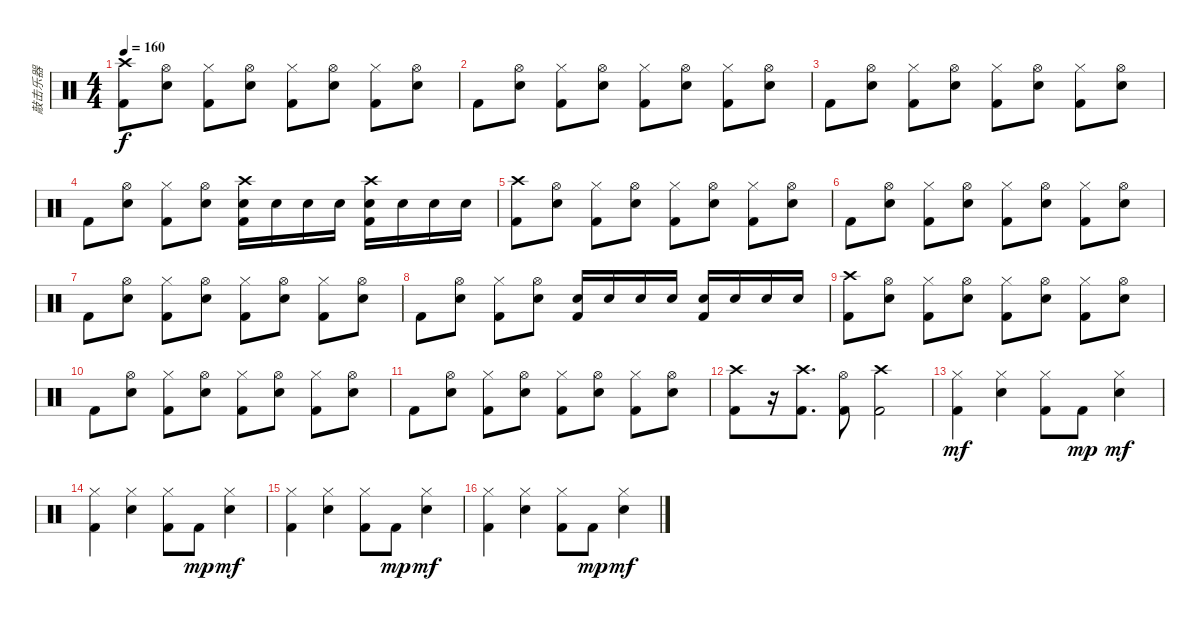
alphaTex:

\track ("敲击乐器" "敲击乐器") {instrument percussion}
\staff {score}
\articulation defaults
\ts (4 4)
\tempo 160
\clef neutral
\ks c
("Crash high (hit)" "Kick (hit) 2").8{dy f} ("Hi-Hat (open)" "Electric Snare (hit)").8 ("Hi-Hat (closed)" "Kick (hit) 2").8 ("Hi-Hat (open)" "Electric Snare (hit)").8 ("Hi-Hat (closed)" "Kick (hit) 2").8 ("Hi-Hat (open)" "Electric Snare (hit)").8 ("Hi-Hat (closed)" "Kick (hit) 2").8 ("Hi-Hat (open)" "Electric Snare (hit)").8 |
"Kick (hit) 2".8 ("Hi-Hat (open)" "Electric Snare (hit)").8 ("Hi-Hat (closed)" "Kick (hit) 2").8 ("Hi-Hat (open)" "Electric Snare (hit)").8 ("Hi-Hat (closed)" "Kick (hit) 2").8 ("Hi-Hat (open)" "Electric Snare (hit)").8 ("Hi-Hat (closed)" "Kick (hit) 2").8 ("Hi-Hat (open)" "Electric Snare (hit)").8 |
"Kick (hit) 2".8 ("Hi-Hat (open)" "Electric Snare (hit)").8 ("Hi-Hat (closed)" "Kick (hit) 2").8 ("Hi-Hat (open)" "Electric Snare (hit)").8 ("Hi-Hat (closed)" "Kick (hit) 2").8 ("Hi-Hat (open)" "Electric Snare (hit)").8 ("Hi-Hat (closed)" "Kick (hit) 2").8 ("Hi-Hat (open)" "Electric Snare (hit)").8 |
"Kick (hit) 2".8 ("Hi-Hat (open)" "Electric Snare (hit)").8 ("Hi-Hat (closed)" "Kick (hit) 2").8 ("Hi-Hat (open)" "Electric Snare (hit)").8 ("Crash high (hit)" "Electric Snare (hit)" "Kick (hit) 2").16 "Electric Snare (hit)".16 "Electric Snare (hit)".16 "Electric Snare (hit)".16 ("Crash high (hit)" "Electric Snare (hit)" "Kick (hit) 2").16 "Electric Snare (hit)".16 "Electric Snare (hit)".16 "Electric Snare (hit)".16 |
("Crash high (hit)" "Kick (hit) 2").8 ("Hi-Hat (open)" "Electric Snare (hit)").8 ("Hi-Hat (closed)" "Kick (hit) 2").8 ("Hi-Hat (open)" "Electric Snare (hit)").8 ("Hi-Hat (closed)" "Kick (hit) 2").8 ("Hi-Hat (open)" "Electric Snare (hit)").8 ("Hi-Hat (closed)" "Kick (hit) 2").8 ("Hi-Hat (open)" "Electric Snare (hit)").8 |
"Kick (hit) 2".8 ("Hi-Hat (open)" "Electric Snare (hit)").8 ("Hi-Hat (closed)" "Kick (hit) 2").8 ("Hi-Hat (open)" "Electric Snare (hit)").8 ("Hi-Hat (closed)" "Kick (hit) 2").8 ("Hi-Hat (open)" "Electric Snare (hit)").8 ("Hi-Hat (closed)" "Kick (hit) 2").8 ("Hi-Hat (open)" "Electric Snare (hit)").8 |
"Kick (hit) 2".8 ("Hi-Hat (open)" "Electric Snare (hit)").8 ("Hi-Hat (closed)" "Kick (hit) 2").8 ("Hi-Hat (open)" "Electric Snare (hit)").8 ("Hi-Hat (closed)" "Kick (hit) 2").8 ("Hi-Hat (open)" "Electric Snare (hit)").8 ("Hi-Hat (closed)" "Kick (hit) 2").8 ("Hi-Hat (open)" "Electric Snare (hit)").8 |
"Kick (hit) 2".8 ("Hi-Hat (open)" "Electric Snare (hit)").8 ("Hi-Hat (closed)" "Kick (hit) 2").8 ("Hi-Hat (open)" "Electric Snare (hit)").8 ("Electric Snare (hit)" "Kick (hit) 2").16 "Electric Snare (hit)".16 "Electric Snare (hit)".16 "Electric Snare (hit)".16 ("Electric Snare (hit)" "Kick (hit) 2").16 "Electric Snare (hit)".16 "Electric Snare (hit)".16 "Electric Snare (hit)".16 |
("Crash high (hit)" "Kick (hit) 2").8 ("Hi-Hat (open)" "Electric Snare (hit)").8 ("Hi-Hat (closed)" "Kick (hit) 2").8 ("Hi-Hat (open)" "Electric Snare (hit)").8 ("Hi-Hat (closed)" "Kick (hit) 2").8 ("Hi-Hat (open)" "Electric Snare (hit)").8 ("Hi-Hat (closed)" "Kick (hit) 2").8 ("Hi-Hat (open)" "Electric Snare (hit)").8 |
"Kick (hit) 2".8 ("Hi-Hat (open)" "Electric Snare (hit)").8 ("Hi-Hat (closed)" "Kick (hit) 2").8 ("Hi-Hat (open)" "Electric Snare (hit)").8 ("Hi-Hat (closed)" "Kick (hit) 2").8 ("Hi-Hat (open)" "Electric Snare (hit)").8 ("Hi-Hat (closed)" "Kick (hit) 2").8 ("Hi-Hat (open)" "Electric Snare (hit)").8 |
"Kick (hit) 2".8 ("Hi-Hat (open)" "Electric Snare (hit)").8 ("Hi-Hat (closed)" "Kick (hit) 2").8 ("Hi-Hat (open)" "Electric Snare (hit)").8 ("Hi-Hat (closed)" "Kick (hit) 2").8 ("Hi-Hat (open)" "Electric Snare (hit)").8 ("Hi-Hat (closed)" "Kick (hit) 2").8 ("Hi-Hat (open)" "Electric Snare (hit)").8 |
("Crash high (hit)" "Kick (hit) 2").8 r.16 ("Crash high (hit)" "Kick (hit) 2").8{d} ("Hi-Hat (open)" "Kick (hit) 2").8 ("Crash high (hit)" "Kick (hit) 2").2 |
("Hi-Hat (closed)" "Kick (hit) 2").4{dy mf} ("Snare (hit) 2" "Hi-Hat (closed)").4 ("Hi-Hat (closed)" "Kick (hit) 2").8 "Kick (hit) 2".8{dy mp} ("Snare (hit) 2" "Hi-Hat (closed)").4{dy mf} |
("Hi-Hat (closed)" "Kick (hit) 2").4 ("Snare (hit) 2" "Hi-Hat (closed)").4 ("Hi-Hat (closed)" "Kick (hit) 2").8 "Kick (hit) 2".8{dy mp} ("Snare (hit) 2" "Hi-Hat (closed)").4{dy mf} |
("Hi-Hat (closed)" "Kick (hit) 2").4 ("Snare (hit) 2" "Hi-Hat (closed)").4 ("Hi-Hat (closed)" "Kick (hit) 2").8 "Kick (hit) 2".8{dy mp} ("Snare (hit) 2" "Hi-Hat (closed)").4{dy mf} |
("Hi-Hat (closed)" "Kick (hit) 2").4 ("Snare (hit) 2" "Hi-Hat (closed)").4 ("Hi-Hat (closed)" "Kick (hit) 2").8 "Kick (hit) 2".8{dy mp} ("Snare (hit) 2" "Hi-Hat (closed)").4{dy mf}
